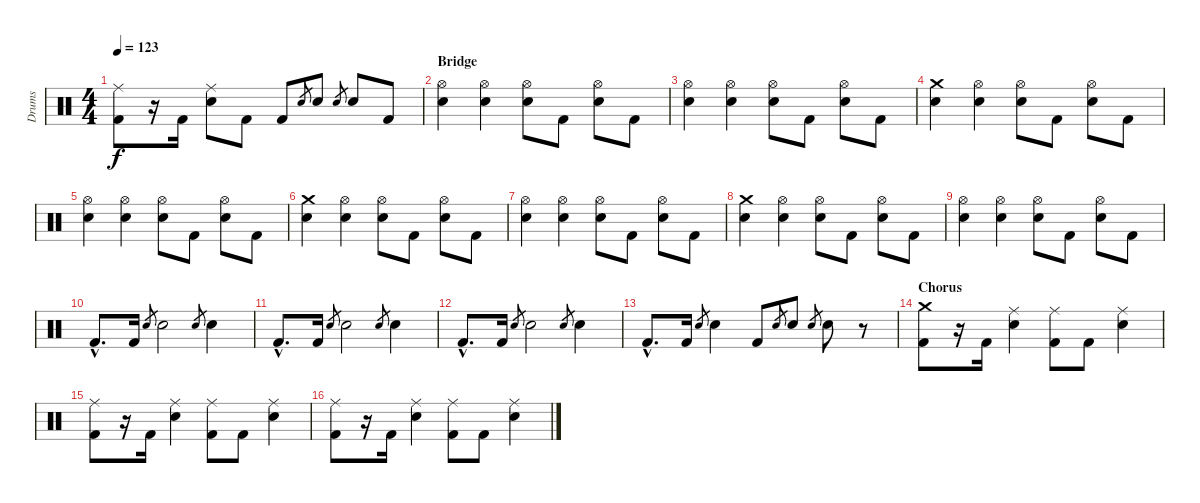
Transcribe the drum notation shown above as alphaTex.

\track ("Drums" "Drums") {instrument percussion}
\staff {score}
\articulation defaults
\ts (4 4)
\tempo 123
\clef neutral
\ks c
("Ride (middle)" "Kick (hit) 2").8{dy f} r.16 "Kick (hit) 2".16 ("Ride (middle)" "Electric Snare (hit)").8 "Kick (hit) 2".8 "Kick (hit) 2".8 "Electric Snare (hit)".8{gr} "Electric Snare (hit)".8 "Electric Snare (hit)".8{gr} "Electric Snare (hit)".8 "Kick (hit) 2".8 |
\section ("" "Bridge")
("Hi-Hat (open)" "Electric Snare (hit)").4 ("Hi-Hat (open)" "Electric Snare (hit)").4 ("Hi-Hat (open)" "Electric Snare (hit)").8 "Kick (hit) 2".8 ("Hi-Hat (open)" "Electric Snare (hit)").8 "Kick (hit) 2".8 |
("Hi-Hat (open)" "Electric Snare (hit)").4 ("Hi-Hat (open)" "Electric Snare (hit)").4 ("Hi-Hat (open)" "Electric Snare (hit)").8 "Kick (hit) 2".8 ("Hi-Hat (open)" "Electric Snare (hit)").8 "Kick (hit) 2".8 |
("Crash medium (hit)" "Electric Snare (hit)").4 ("Hi-Hat (open)" "Electric Snare (hit)").4 ("Hi-Hat (open)" "Electric Snare (hit)").8 "Kick (hit) 2".8 ("Hi-Hat (open)" "Electric Snare (hit)").8 "Kick (hit) 2".8 |
("Hi-Hat (open)" "Electric Snare (hit)").4 ("Hi-Hat (open)" "Electric Snare (hit)").4 ("Hi-Hat (open)" "Electric Snare (hit)").8 "Kick (hit) 2".8 ("Hi-Hat (open)" "Electric Snare (hit)").8 "Kick (hit) 2".8 |
("Crash medium (hit)" "Electric Snare (hit)").4 ("Hi-Hat (open)" "Electric Snare (hit)").4 ("Hi-Hat (open)" "Electric Snare (hit)").8 "Kick (hit) 2".8 ("Hi-Hat (open)" "Electric Snare (hit)").8 "Kick (hit) 2".8 |
("Hi-Hat (open)" "Electric Snare (hit)").4 ("Hi-Hat (open)" "Electric Snare (hit)").4 ("Hi-Hat (open)" "Electric Snare (hit)").8 "Kick (hit) 2".8 ("Hi-Hat (open)" "Electric Snare (hit)").8 "Kick (hit) 2".8 |
("Crash medium (hit)" "Electric Snare (hit)").4 ("Hi-Hat (open)" "Electric Snare (hit)").4 ("Hi-Hat (open)" "Electric Snare (hit)").8 "Kick (hit) 2".8 ("Hi-Hat (open)" "Electric Snare (hit)").8 "Kick (hit) 2".8 |
("Hi-Hat (open)" "Electric Snare (hit)").4 ("Hi-Hat (open)" "Electric Snare (hit)").4 ("Hi-Hat (open)" "Electric Snare (hit)").8 "Kick (hit) 2".8 ("Hi-Hat (open)" "Electric Snare (hit)").8 "Kick (hit) 2".8 |
"Kick (hit) 2"{hac}.8{d} "Kick (hit) 2".16 "Electric Snare (hit)".8{gr} "Electric Snare (hit)".2 "Electric Snare (hit)".8{gr} "Electric Snare (hit)".4 |
"Kick (hit) 2"{hac}.8{d} "Kick (hit) 2".16 "Electric Snare (hit)".8{gr} "Electric Snare (hit)".2 "Electric Snare (hit)".8{gr} "Electric Snare (hit)".4 |
"Kick (hit) 2"{hac}.8{d} "Kick (hit) 2".16 "Electric Snare (hit)".8{gr} "Electric Snare (hit)".2 "Electric Snare (hit)".8{gr} "Electric Snare (hit)".4 |
"Kick (hit) 2"{hac}.8{d} "Kick (hit) 2".16 "Electric Snare (hit)".8{gr} "Electric Snare (hit)".4 "Kick (hit) 2".8 "Electric Snare (hit)".8{gr} "Electric Snare (hit)".8 "Electric Snare (hit)".8{gr} "Electric Snare (hit)".8 r.8 |
\section ("" "Chorus")
("Crash medium (hit)" "Kick (hit) 2").8 r.16 "Kick (hit) 2".16 ("Ride (middle)" "Electric Snare (hit)").4 ("Ride (middle)" "Kick (hit) 2").8 "Kick (hit) 2".8 ("Ride (middle)" "Electric Snare (hit)").4 |
("Ride (middle)" "Kick (hit) 2").8 r.16 "Kick (hit) 2".16 ("Ride (middle)" "Electric Snare (hit)").4 ("Ride (middle)" "Kick (hit) 2").8 "Kick (hit) 2".8 ("Ride (middle)" "Electric Snare (hit)").4 |
("Ride (middle)" "Kick (hit) 2").8 r.16 "Kick (hit) 2".16 ("Ride (middle)" "Electric Snare (hit)").4 ("Ride (middle)" "Kick (hit) 2").8 "Kick (hit) 2".8 ("Ride (middle)" "Electric Snare (hit)").4
